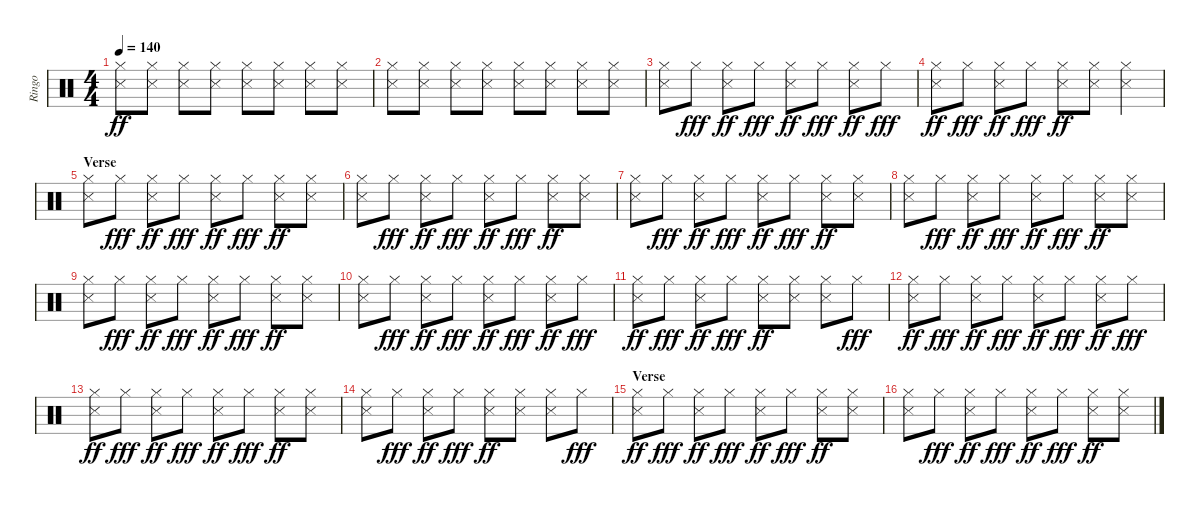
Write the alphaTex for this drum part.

\track ("Ringo" "Ringo") {instrument percussion}
\staff {score}
\articulation defaults
\ts (4 4)
\tempo 140
\clef neutral
\ks c
("Hi-Hat (closed)" "Snare (side stick) 3").8{dy ff} ("Hi-Hat (closed)" "Snare (side stick) 3").8 ("Hi-Hat (closed)" "Snare (side stick) 3").8 ("Hi-Hat (closed)" "Snare (side stick) 3").8 ("Hi-Hat (closed)" "Snare (side stick) 3").8 ("Hi-Hat (closed)" "Snare (side stick) 3").8 ("Hi-Hat (closed)" "Snare (side stick) 3").8 ("Hi-Hat (closed)" "Snare (side stick) 3").8 |
("Hi-Hat (closed)" "Snare (side stick) 3").8 ("Hi-Hat (closed)" "Snare (side stick) 3").8 ("Hi-Hat (closed)" "Snare (side stick) 3").8 ("Hi-Hat (closed)" "Snare (side stick) 3").8 ("Hi-Hat (closed)" "Snare (side stick) 3").8 ("Hi-Hat (closed)" "Snare (side stick) 3").8 ("Hi-Hat (closed)" "Snare (side stick) 3").8 ("Hi-Hat (closed)" "Snare (side stick) 3").8 |
("Hi-Hat (closed)" "Snare (side stick) 3").8 "Hi-Hat (closed)".8{dy fff} ("Hi-Hat (closed)" "Snare (side stick) 3").8{dy ff} "Hi-Hat (closed)".8{dy fff} ("Hi-Hat (closed)" "Snare (side stick) 3").8{dy ff} "Hi-Hat (closed)".8{dy fff} ("Hi-Hat (closed)" "Snare (side stick) 3").8{dy ff} "Hi-Hat (closed)".8{dy fff} |
("Hi-Hat (closed)" "Snare (side stick) 3").8{dy ff} "Hi-Hat (closed)".8{dy fff} ("Hi-Hat (closed)" "Snare (side stick) 3").8{dy ff} "Hi-Hat (closed)".8{dy fff} ("Hi-Hat (closed)" "Snare (side stick) 3").8{dy ff} ("Hi-Hat (closed)" "Snare (side stick) 3").8 ("Hi-Hat (closed)" "Snare (side stick) 3").4 |
\section ("" "Verse")
("Hi-Hat (closed)" "Snare (side stick) 3").8 "Hi-Hat (closed)".8{dy fff} ("Hi-Hat (closed)" "Snare (side stick) 3").8{dy ff} "Hi-Hat (closed)".8{dy fff} ("Hi-Hat (closed)" "Snare (side stick) 3").8{dy ff} "Hi-Hat (closed)".8{dy fff} ("Hi-Hat (closed)" "Snare (side stick) 3").8{dy ff} ("Hi-Hat (closed)" "Snare (side stick) 3").8 |
("Hi-Hat (closed)" "Snare (side stick) 3").8 "Hi-Hat (closed)".8{dy fff} ("Hi-Hat (closed)" "Snare (side stick) 3").8{dy ff} "Hi-Hat (closed)".8{dy fff} ("Hi-Hat (closed)" "Snare (side stick) 3").8{dy ff} "Hi-Hat (closed)".8{dy fff} ("Hi-Hat (closed)" "Snare (side stick) 3").8{dy ff} ("Hi-Hat (closed)" "Snare (side stick) 3").8 |
("Hi-Hat (closed)" "Snare (side stick) 3").8 "Hi-Hat (closed)".8{dy fff} ("Hi-Hat (closed)" "Snare (side stick) 3").8{dy ff} "Hi-Hat (closed)".8{dy fff} ("Hi-Hat (closed)" "Snare (side stick) 3").8{dy ff} "Hi-Hat (closed)".8{dy fff} ("Hi-Hat (closed)" "Snare (side stick) 3").8{dy ff} ("Hi-Hat (closed)" "Snare (side stick) 3").8 |
("Hi-Hat (closed)" "Snare (side stick) 3").8 "Hi-Hat (closed)".8{dy fff} ("Hi-Hat (closed)" "Snare (side stick) 3").8{dy ff} "Hi-Hat (closed)".8{dy fff} ("Hi-Hat (closed)" "Snare (side stick) 3").8{dy ff} "Hi-Hat (closed)".8{dy fff} ("Hi-Hat (closed)" "Snare (side stick) 3").8{dy ff} ("Hi-Hat (closed)" "Snare (side stick) 3").8 |
("Hi-Hat (closed)" "Snare (side stick) 3").8 "Hi-Hat (closed)".8{dy fff} ("Hi-Hat (closed)" "Snare (side stick) 3").8{dy ff} "Hi-Hat (closed)".8{dy fff} ("Hi-Hat (closed)" "Snare (side stick) 3").8{dy ff} "Hi-Hat (closed)".8{dy fff} ("Hi-Hat (closed)" "Snare (side stick) 3").8{dy ff} ("Hi-Hat (closed)" "Snare (side stick) 3").8 |
("Hi-Hat (closed)" "Snare (side stick) 3").8 "Hi-Hat (closed)".8{dy fff} ("Hi-Hat (closed)" "Snare (side stick) 3").8{dy ff} "Hi-Hat (closed)".8{dy fff} ("Hi-Hat (closed)" "Snare (side stick) 3").8{dy ff} "Hi-Hat (closed)".8{dy fff} ("Hi-Hat (closed)" "Snare (side stick) 3").8{dy ff} "Hi-Hat (closed)".8{dy fff} |
("Hi-Hat (closed)" "Snare (side stick) 3").8{dy ff} "Hi-Hat (closed)".8{dy fff} ("Hi-Hat (closed)" "Snare (side stick) 3").8{dy ff} "Hi-Hat (closed)".8{dy fff} ("Hi-Hat (closed)" "Snare (side stick) 3").8{dy ff} ("Hi-Hat (closed)" "Snare (side stick) 3").8 ("Hi-Hat (closed)" "Snare (side stick) 3").8 "Hi-Hat (closed)".8{dy fff} |
("Hi-Hat (closed)" "Snare (side stick) 3").8{dy ff} "Hi-Hat (closed)".8{dy fff} ("Hi-Hat (closed)" "Snare (side stick) 3").8{dy ff} "Hi-Hat (closed)".8{dy fff} ("Hi-Hat (closed)" "Snare (side stick) 3").8{dy ff} "Hi-Hat (closed)".8{dy fff} ("Hi-Hat (closed)" "Snare (side stick) 3").8{dy ff} "Hi-Hat (closed)".8{dy fff} |
("Hi-Hat (closed)" "Snare (side stick) 3").8{dy ff} "Hi-Hat (closed)".8{dy fff} ("Hi-Hat (closed)" "Snare (side stick) 3").8{dy ff} "Hi-Hat (closed)".8{dy fff} ("Hi-Hat (closed)" "Snare (side stick) 3").8{dy ff} "Hi-Hat (closed)".8{dy fff} ("Hi-Hat (closed)" "Snare (side stick) 3").8{dy ff} ("Hi-Hat (closed)" "Snare (side stick) 3").8 |
("Hi-Hat (closed)" "Snare (side stick) 3").8 "Hi-Hat (closed)".8{dy fff} ("Hi-Hat (closed)" "Snare (side stick) 3").8{dy ff} "Hi-Hat (closed)".8{dy fff} ("Hi-Hat (closed)" "Snare (side stick) 3").8{dy ff} ("Hi-Hat (closed)" "Snare (side stick) 3").8 ("Hi-Hat (closed)" "Snare (side stick) 3").8 "Hi-Hat (closed)".8{dy fff} |
\section ("" "Verse")
("Hi-Hat (closed)" "Snare (side stick) 3").8{dy ff} "Hi-Hat (closed)".8{dy fff} ("Hi-Hat (closed)" "Snare (side stick) 3").8{dy ff} "Hi-Hat (closed)".8{dy fff} ("Hi-Hat (closed)" "Snare (side stick) 3").8{dy ff} "Hi-Hat (closed)".8{dy fff} ("Hi-Hat (closed)" "Snare (side stick) 3").8{dy ff} ("Hi-Hat (closed)" "Snare (side stick) 3").8 |
("Hi-Hat (closed)" "Snare (side stick) 3").8 "Hi-Hat (closed)".8{dy fff} ("Hi-Hat (closed)" "Snare (side stick) 3").8{dy ff} "Hi-Hat (closed)".8{dy fff} ("Hi-Hat (closed)" "Snare (side stick) 3").8{dy ff} "Hi-Hat (closed)".8{dy fff} ("Hi-Hat (closed)" "Snare (side stick) 3").8{dy ff} ("Hi-Hat (closed)" "Snare (side stick) 3").8
